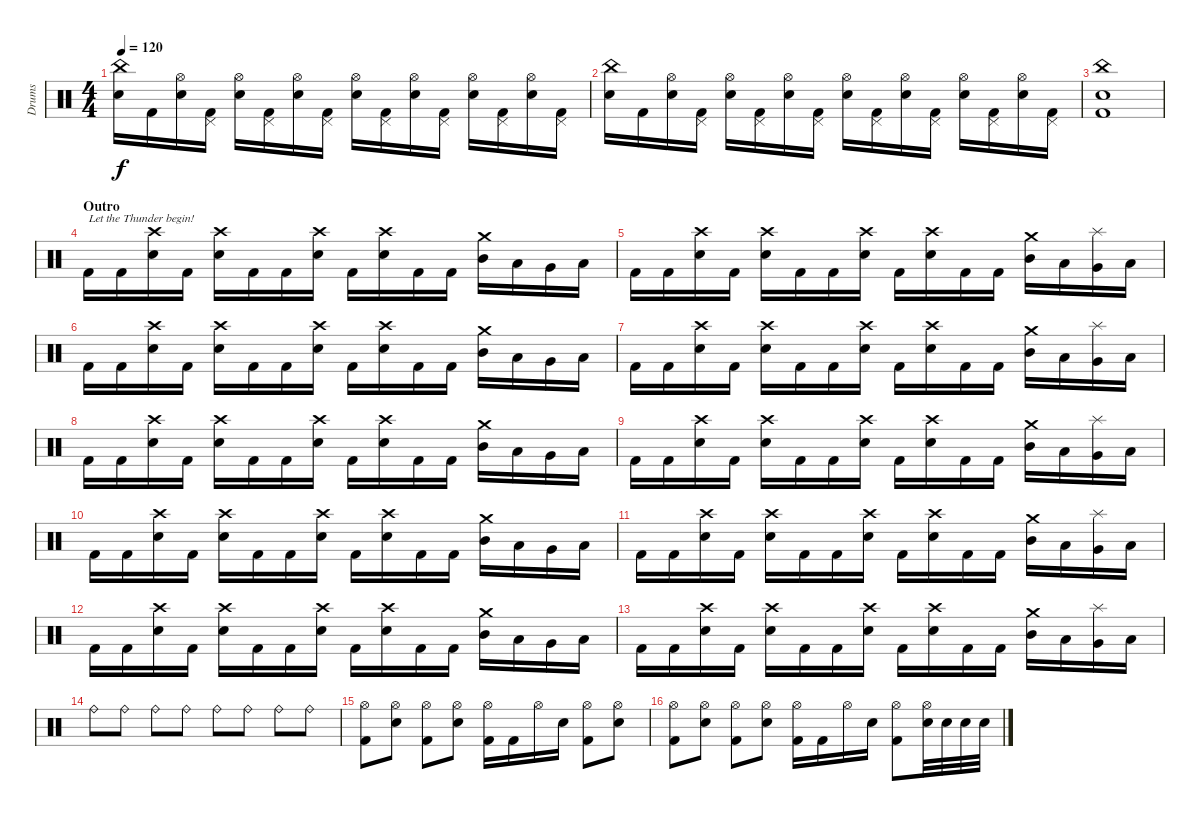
\track ("Drums" "Drums") {instrument percussion}
\staff {score}
\articulation defaults
\ts (4 4)
\tempo 120
\clef neutral
\ks c
("China (hit)" "Electric Snare (hit)").16{dy f} "Kick (hit) 2".16 ("Hi-Hat (open)" "Electric Snare (hit)").16 ("Pedal Hi-Hat (hit)" "Kick (hit) 2").16 ("Hi-Hat (open)" "Electric Snare (hit)").16 ("Pedal Hi-Hat (hit)" "Kick (hit) 2").16 ("Hi-Hat (open)" "Electric Snare (hit)").16 ("Pedal Hi-Hat (hit)" "Kick (hit) 2").16 ("Hi-Hat (open)" "Electric Snare (hit)").16 ("Pedal Hi-Hat (hit)" "Kick (hit) 2").16 ("Hi-Hat (open)" "Electric Snare (hit)").16 ("Pedal Hi-Hat (hit)" "Kick (hit) 2").16 ("Hi-Hat (open)" "Electric Snare (hit)").16 ("Pedal Hi-Hat (hit)" "Kick (hit) 2").16 ("Hi-Hat (open)" "Electric Snare (hit)").16 ("Pedal Hi-Hat (hit)" "Kick (hit) 2").16 |
("China (hit)" "Electric Snare (hit)").16 "Kick (hit) 2".16 ("Hi-Hat (open)" "Electric Snare (hit)").16 ("Pedal Hi-Hat (hit)" "Kick (hit) 2").16 ("Hi-Hat (open)" "Electric Snare (hit)").16 ("Pedal Hi-Hat (hit)" "Kick (hit) 2").16 ("Hi-Hat (open)" "Electric Snare (hit)").16 ("Pedal Hi-Hat (hit)" "Kick (hit) 2").16 ("Hi-Hat (open)" "Electric Snare (hit)").16 ("Pedal Hi-Hat (hit)" "Kick (hit) 2").16 ("Hi-Hat (open)" "Electric Snare (hit)").16 ("Pedal Hi-Hat (hit)" "Kick (hit) 2").16 ("Hi-Hat (open)" "Electric Snare (hit)").16 ("Pedal Hi-Hat (hit)" "Kick (hit) 2").16 ("Hi-Hat (open)" "Electric Snare (hit)").16 ("Pedal Hi-Hat (hit)" "Kick (hit) 2").16 |
("China (hit)" "Electric Snare (hit)" "Kick (hit) 2").1 |
\section ("" "Outro")
"Kick (hit) 2".16{txt "Let the Thunder begin!"} "Kick (hit) 2".16 ("Crash high (hit)" "Electric Snare (hit)").16 "Kick (hit) 2".16 ("Crash high (hit)" "Electric Snare (hit)").16 "Kick (hit) 2".16 "Kick (hit) 2".16 ("Crash high (hit)" "Electric Snare (hit)").16 "Kick (hit) 2".16 ("Crash high (hit)" "Electric Snare (hit)").16 "Kick (hit) 2".16 "Kick (hit) 2".16 ("Crash medium (hit)" "Mid Tom (hit)").16 "Low Tom (hit)".16 "Very Low Tom (hit)".16 "Low Floor Tom (hit)".16 |
"Kick (hit) 2".16 "Kick (hit) 2".16 ("Crash high (hit)" "Electric Snare (hit)").16 "Kick (hit) 2".16 ("Crash high (hit)" "Electric Snare (hit)").16 "Kick (hit) 2".16 "Kick (hit) 2".16 ("Crash high (hit)" "Electric Snare (hit)").16 "Kick (hit) 2".16 ("Crash high (hit)" "Electric Snare (hit)").16 "Kick (hit) 2".16 "Kick (hit) 2".16 ("Crash medium (hit)" "Mid Tom (hit)").16 "Low Tom (hit)".16 ("Splash (hit)" "Very Low Tom (hit)").16 "Low Floor Tom (hit)".16 |
"Kick (hit) 2".16 "Kick (hit) 2".16 ("Crash high (hit)" "Electric Snare (hit)").16 "Kick (hit) 2".16 ("Crash high (hit)" "Electric Snare (hit)").16 "Kick (hit) 2".16 "Kick (hit) 2".16 ("Crash high (hit)" "Electric Snare (hit)").16 "Kick (hit) 2".16 ("Crash high (hit)" "Electric Snare (hit)").16 "Kick (hit) 2".16 "Kick (hit) 2".16 ("Crash medium (hit)" "Mid Tom (hit)").16 "Low Tom (hit)".16 "Very Low Tom (hit)".16 "Low Floor Tom (hit)".16 |
"Kick (hit) 2".16 "Kick (hit) 2".16 ("Crash high (hit)" "Electric Snare (hit)").16 "Kick (hit) 2".16 ("Crash high (hit)" "Electric Snare (hit)").16 "Kick (hit) 2".16 "Kick (hit) 2".16 ("Crash high (hit)" "Electric Snare (hit)").16 "Kick (hit) 2".16 ("Crash high (hit)" "Electric Snare (hit)").16 "Kick (hit) 2".16 "Kick (hit) 2".16 ("Crash medium (hit)" "Mid Tom (hit)").16 "Low Tom (hit)".16 ("Splash (hit)" "Very Low Tom (hit)").16 "Low Floor Tom (hit)".16 |
"Kick (hit) 2".16 "Kick (hit) 2".16 ("Crash high (hit)" "Electric Snare (hit)").16 "Kick (hit) 2".16 ("Crash high (hit)" "Electric Snare (hit)").16 "Kick (hit) 2".16 "Kick (hit) 2".16 ("Crash high (hit)" "Electric Snare (hit)").16 "Kick (hit) 2".16 ("Crash high (hit)" "Electric Snare (hit)").16 "Kick (hit) 2".16 "Kick (hit) 2".16 ("Crash medium (hit)" "Mid Tom (hit)").16 "Low Tom (hit)".16 "Very Low Tom (hit)".16 "Low Floor Tom (hit)".16 |
"Kick (hit) 2".16 "Kick (hit) 2".16 ("Crash high (hit)" "Electric Snare (hit)").16 "Kick (hit) 2".16 ("Crash high (hit)" "Electric Snare (hit)").16 "Kick (hit) 2".16 "Kick (hit) 2".16 ("Crash high (hit)" "Electric Snare (hit)").16 "Kick (hit) 2".16 ("Crash high (hit)" "Electric Snare (hit)").16 "Kick (hit) 2".16 "Kick (hit) 2".16 ("Crash medium (hit)" "Mid Tom (hit)").16 "Low Tom (hit)".16 ("Splash (hit)" "Very Low Tom (hit)").16 "Low Floor Tom (hit)".16 |
"Kick (hit) 2".16 "Kick (hit) 2".16 ("Crash high (hit)" "Electric Snare (hit)").16 "Kick (hit) 2".16 ("Crash high (hit)" "Electric Snare (hit)").16 "Kick (hit) 2".16 "Kick (hit) 2".16 ("Crash high (hit)" "Electric Snare (hit)").16 "Kick (hit) 2".16 ("Crash high (hit)" "Electric Snare (hit)").16 "Kick (hit) 2".16 "Kick (hit) 2".16 ("Crash medium (hit)" "Mid Tom (hit)").16 "Low Tom (hit)".16 "Very Low Tom (hit)".16 "Low Floor Tom (hit)".16 |
"Kick (hit) 2".16 "Kick (hit) 2".16 ("Crash high (hit)" "Electric Snare (hit)").16 "Kick (hit) 2".16 ("Crash high (hit)" "Electric Snare (hit)").16 "Kick (hit) 2".16 "Kick (hit) 2".16 ("Crash high (hit)" "Electric Snare (hit)").16 "Kick (hit) 2".16 ("Crash high (hit)" "Electric Snare (hit)").16 "Kick (hit) 2".16 "Kick (hit) 2".16 ("Crash medium (hit)" "Mid Tom (hit)").16 "Low Tom (hit)".16 ("Splash (hit)" "Very Low Tom (hit)").16 "Low Floor Tom (hit)".16 |
"Kick (hit) 2".16 "Kick (hit) 2".16 ("Crash high (hit)" "Electric Snare (hit)").16 "Kick (hit) 2".16 ("Crash high (hit)" "Electric Snare (hit)").16 "Kick (hit) 2".16 "Kick (hit) 2".16 ("Crash high (hit)" "Electric Snare (hit)").16 "Kick (hit) 2".16 ("Crash high (hit)" "Electric Snare (hit)").16 "Kick (hit) 2".16 "Kick (hit) 2".16 ("Crash medium (hit)" "Mid Tom (hit)").16 "Low Tom (hit)".16 "Very Low Tom (hit)".16 "Low Floor Tom (hit)".16 |
"Kick (hit) 2".16 "Kick (hit) 2".16 ("Crash high (hit)" "Electric Snare (hit)").16 "Kick (hit) 2".16 ("Crash high (hit)" "Electric Snare (hit)").16 "Kick (hit) 2".16 "Kick (hit) 2".16 ("Crash high (hit)" "Electric Snare (hit)").16 "Kick (hit) 2".16 ("Crash high (hit)" "Electric Snare (hit)").16 "Kick (hit) 2".16 "Kick (hit) 2".16 ("Crash medium (hit)" "Mid Tom (hit)").16 "Low Tom (hit)".16 ("Splash (hit)" "Very Low Tom (hit)").16 "Low Floor Tom (hit)".16 |
"Ride (bell)".8 "Ride (bell)".8 "Ride (bell)".8 "Ride (bell)".8 "Ride (bell)".8 "Ride (bell)".8 "Ride (bell)".8 "Ride (bell)".8 |
("Hi-Hat (open)" "Kick (hit) 2").8 ("Hi-Hat (open)" "Electric Snare (hit)").8 ("Hi-Hat (open)" "Kick (hit) 2").8 ("Hi-Hat (open)" "Electric Snare (hit)").8 ("Hi-Hat (open)" "Kick (hit) 2").16 "Kick (hit) 2".16 "Hi-Hat (open)".16 "Electric Snare (hit)".16 ("Hi-Hat (open)" "Kick (hit) 2").8 ("Hi-Hat (open)" "Electric Snare (hit)").8 |
("Hi-Hat (open)" "Kick (hit) 2").8 ("Hi-Hat (open)" "Electric Snare (hit)").8 ("Hi-Hat (open)" "Kick (hit) 2").8 ("Hi-Hat (open)" "Electric Snare (hit)").8 ("Hi-Hat (open)" "Kick (hit) 2").16 "Kick (hit) 2".16 "Hi-Hat (open)".16 "Electric Snare (hit)".16 ("Hi-Hat (open)" "Kick (hit) 2").8 ("Hi-Hat (open)" "Electric Snare (hit)").32 "Electric Snare (hit)".32 "Electric Snare (hit)".32 "Electric Snare (hit)".32
